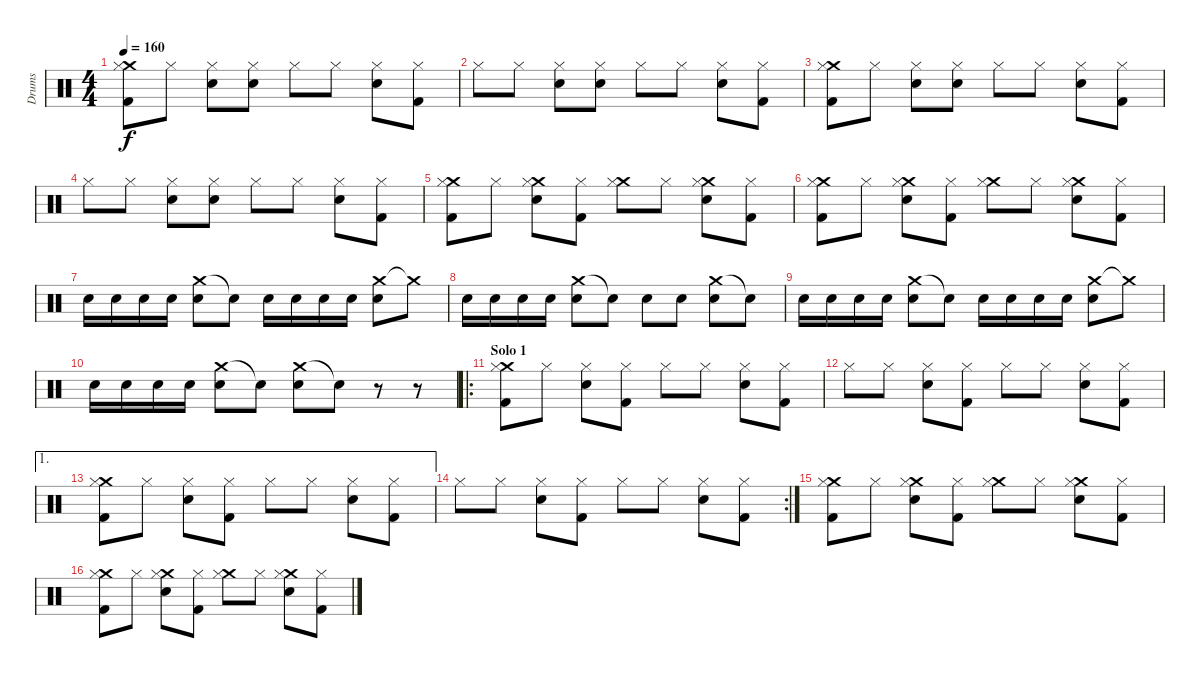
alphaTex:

\track ("Drums" "Drums") {instrument percussion}
\staff {score}
\articulation defaults
\ts (4 4)
\tempo 160
\clef neutral
\ks c
("Crash medium (hit)" "Hi-Hat (closed)" "Kick (hit) 2").8{dy f} "Hi-Hat (closed)".8 ("Hi-Hat (closed)" "Snare (hit) 2").8 ("Hi-Hat (closed)" "Snare (hit) 2").8 "Hi-Hat (closed)".8 "Hi-Hat (closed)".8 ("Hi-Hat (closed)" "Snare (hit) 2").8 ("Hi-Hat (closed)" "Kick (hit) 2").8 |
"Hi-Hat (closed)".8 "Hi-Hat (closed)".8 ("Hi-Hat (closed)" "Snare (hit) 2").8 ("Hi-Hat (closed)" "Snare (hit) 2").8 "Hi-Hat (closed)".8 "Hi-Hat (closed)".8 ("Hi-Hat (closed)" "Snare (hit) 2").8 ("Hi-Hat (closed)" "Kick (hit) 2").8 |
("Crash medium (hit)" "Hi-Hat (closed)" "Kick (hit) 2").8 "Hi-Hat (closed)".8 ("Hi-Hat (closed)" "Snare (hit) 2").8 ("Hi-Hat (closed)" "Snare (hit) 2").8 "Hi-Hat (closed)".8 "Hi-Hat (closed)".8 ("Hi-Hat (closed)" "Snare (hit) 2").8 ("Hi-Hat (closed)" "Kick (hit) 2").8 |
"Hi-Hat (closed)".8 "Hi-Hat (closed)".8 ("Hi-Hat (closed)" "Snare (hit) 2").8 ("Hi-Hat (closed)" "Snare (hit) 2").8 "Hi-Hat (closed)".8 "Hi-Hat (closed)".8 ("Hi-Hat (closed)" "Snare (hit) 2").8 ("Hi-Hat (closed)" "Kick (hit) 2").8 |
("Crash medium (hit)" "Hi-Hat (closed)" "Kick (hit) 2").8 "Hi-Hat (closed)".8 ("Crash medium (hit)" "Hi-Hat (closed)" "Snare (hit) 2").8 ("Hi-Hat (closed)" "Kick (hit) 2").8 ("Crash medium (hit)" "Hi-Hat (closed)").8 "Hi-Hat (closed)".8 ("Crash medium (hit)" "Hi-Hat (closed)" "Snare (hit) 2").8 ("Hi-Hat (closed)" "Kick (hit) 2").8 |
("Crash medium (hit)" "Hi-Hat (closed)" "Kick (hit) 2").8 "Hi-Hat (closed)".8 ("Crash medium (hit)" "Hi-Hat (closed)" "Snare (hit) 2").8 ("Hi-Hat (closed)" "Kick (hit) 2").8 ("Crash medium (hit)" "Hi-Hat (closed)").8 "Hi-Hat (closed)".8 ("Crash medium (hit)" "Hi-Hat (closed)" "Snare (hit) 2").8 ("Hi-Hat (closed)" "Kick (hit) 2").8 |
"Snare (hit) 2".16 "Snare (hit) 2".16 "Snare (hit) 2".16 "Snare (hit) 2".16 ("Crash medium (hit)" "Snare (hit) 2").8 "Snare (hit)"{t}.8 "Snare (hit) 2".16 "Snare (hit) 2".16 "Snare (hit) 2".16 "Snare (hit) 2".16 ("Crash medium (hit)" "Snare (hit) 2").8 "Crash medium (hit)"{t}.8 |
"Snare (hit) 2".16 "Snare (hit) 2".16 "Snare (hit) 2".16 "Snare (hit) 2".16 ("Crash medium (hit)" "Snare (hit) 2").8 "Snare (hit)"{t}.8 "Snare (hit) 2".8 "Snare (hit) 2".8 ("Crash medium (hit)" "Snare (hit) 2").8 "Snare (hit)"{t}.8 |
"Snare (hit) 2".16 "Snare (hit) 2".16 "Snare (hit) 2".16 "Snare (hit) 2".16 ("Crash medium (hit)" "Snare (hit) 2").8 "Snare (hit)"{t}.8 "Snare (hit) 2".16 "Snare (hit) 2".16 "Snare (hit) 2".16 "Snare (hit) 2".16 ("Crash medium (hit)" "Snare (hit) 2").8 "Crash medium (hit)"{t}.8 |
"Snare (hit) 2".16 "Snare (hit) 2".16 "Snare (hit) 2".16 "Snare (hit) 2".16 ("Crash medium (hit)" "Snare (hit) 2").8 "Snare (hit)"{t}.8 ("Crash medium (hit)" "Snare (hit) 2").8 "Snare (hit)"{t}.8 r.8 r.8 |
\ro
\section ("" "Solo 1")
("Crash medium (hit)" "Hi-Hat (closed)" "Kick (hit) 2").8 "Hi-Hat (closed)".8 ("Hi-Hat (closed)" "Snare (hit) 2").8 ("Hi-Hat (closed)" "Kick (hit) 2").8 "Hi-Hat (closed)".8 "Hi-Hat (closed)".8 ("Hi-Hat (closed)" "Snare (hit) 2").8 ("Hi-Hat (closed)" "Kick (hit) 2").8 |
"Hi-Hat (closed)".8 "Hi-Hat (closed)".8 ("Hi-Hat (closed)" "Snare (hit) 2").8 ("Hi-Hat (closed)" "Kick (hit) 2").8 "Hi-Hat (closed)".8 "Hi-Hat (closed)".8 ("Hi-Hat (closed)" "Snare (hit) 2").8 ("Hi-Hat (closed)" "Kick (hit) 2").8 |
\ae 1
("Crash medium (hit)" "Hi-Hat (closed)" "Kick (hit) 2").8 "Hi-Hat (closed)".8 ("Hi-Hat (closed)" "Snare (hit) 2").8 ("Hi-Hat (closed)" "Kick (hit) 2").8 "Hi-Hat (closed)".8 "Hi-Hat (closed)".8 ("Hi-Hat (closed)" "Snare (hit) 2").8 ("Hi-Hat (closed)" "Kick (hit) 2").8 |
\rc 2 "Hi-Hat (closed)".8 "Hi-Hat (closed)".8
("Hi-Hat (closed)" "Snare (hit) 2").8 ("Hi-Hat (closed)" "Kick (hit) 2").8 "Hi-Hat (closed)".8 "Hi-Hat (closed)".8 ("Hi-Hat (closed)" "Snare (hit) 2").8 ("Hi-Hat (closed)" "Kick (hit) 2").8 |
("Crash medium (hit)" "Hi-Hat (closed)" "Kick (hit) 2").8 "Hi-Hat (closed)".8 ("Crash medium (hit)" "Hi-Hat (closed)" "Snare (hit) 2").8 ("Hi-Hat (closed)" "Kick (hit) 2").8 ("Crash medium (hit)" "Hi-Hat (closed)").8 "Hi-Hat (closed)".8 ("Crash medium (hit)" "Hi-Hat (closed)" "Snare (hit) 2").8 ("Hi-Hat (closed)" "Kick (hit) 2").8 |
("Crash medium (hit)" "Hi-Hat (closed)" "Kick (hit) 2").8 "Hi-Hat (closed)".8 ("Crash medium (hit)" "Hi-Hat (closed)" "Snare (hit) 2").8 ("Hi-Hat (closed)" "Kick (hit) 2").8 ("Crash medium (hit)" "Hi-Hat (closed)").8 "Hi-Hat (closed)".8 ("Crash medium (hit)" "Hi-Hat (closed)" "Snare (hit) 2").8 ("Hi-Hat (closed)" "Kick (hit) 2").8
